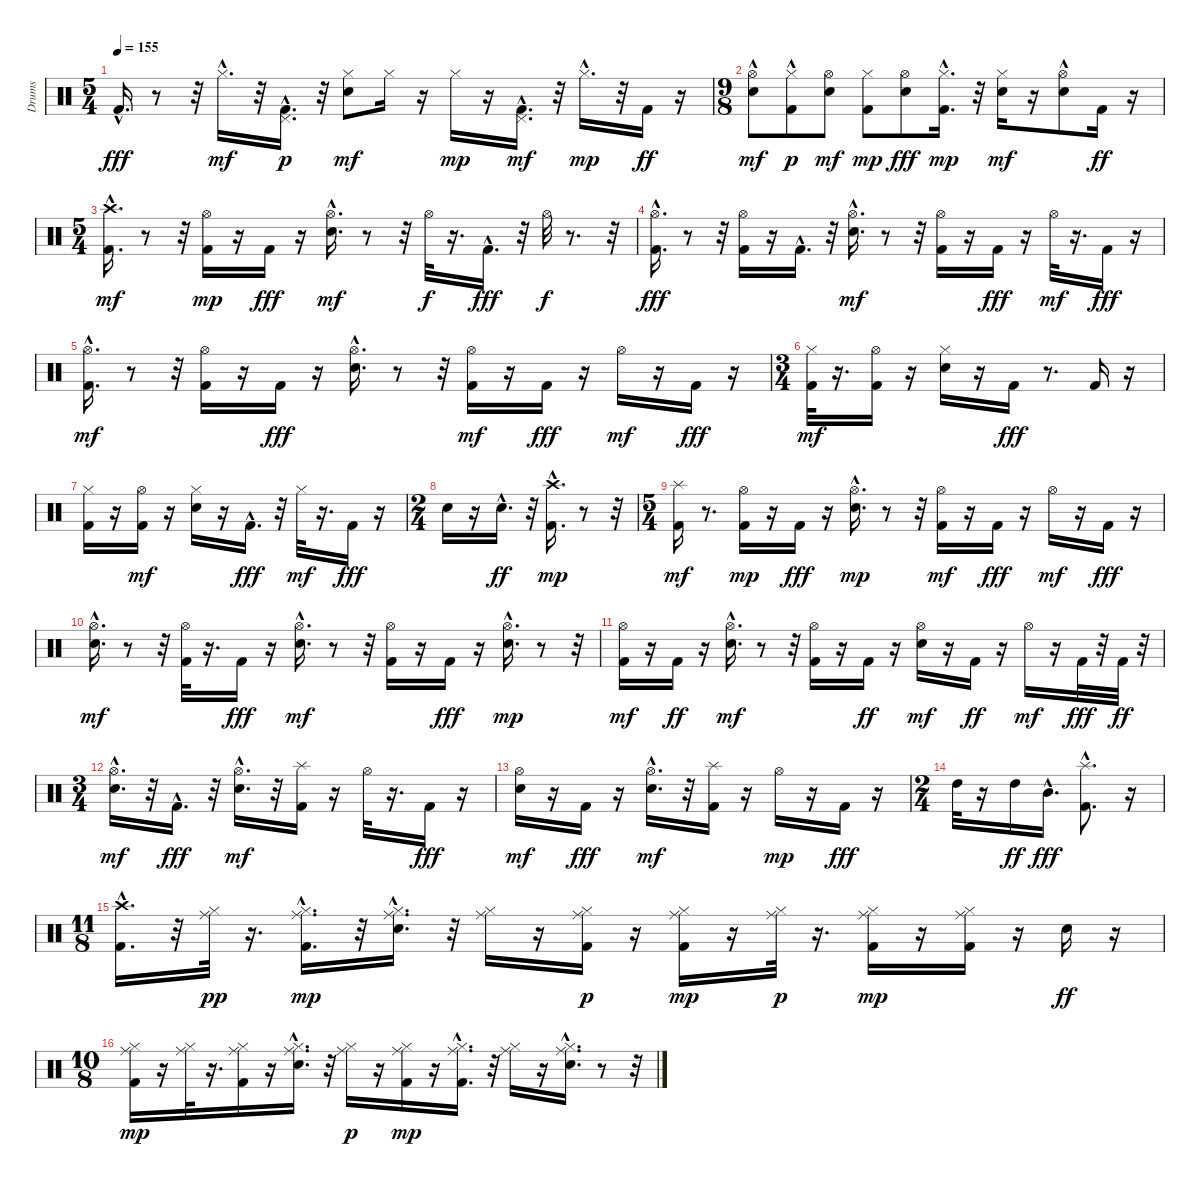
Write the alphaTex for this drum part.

\track ("Drums" "Drums") {instrument percussion}
\staff {score}
\articulation defaults
\ts (5 4)
\tempo 155
\clef neutral
\ks c "Kick (hit) 2"{hac}.16{d dy fff}
r.8 r.32 "Hi-Hat (closed)"{hac}.16{d dy mf} r.32 ("Kick (hit) 2"{hac} "Pedal Hi-Hat (hit)"{hac}).16{d dy p} r.32 ("Electric Snare (hit)" "Hi-Hat (closed)").8{dy mf} "Hi-Hat (closed)".16 r.16 "Hi-Hat (closed)".16{dy mp} r.16 ("Kick (hit) 2"{hac} "Pedal Hi-Hat (hit)"{hac}).16{d dy mf} r.32 "Hi-Hat (closed)"{hac}.16{d dy mp} r.32 "Kick (hit) 2".16{dy ff} r.16 |
\ts (9 8)
("Electric Snare (hit)" "Hi-Hat (open)"{hac}).8{dy mf} ("Kick (hit) 2" "Hi-Hat (closed)"{hac}).8{dy p} ("Electric Snare (hit)" "Hi-Hat (open)").8{dy mf} ("Kick (hit) 2" "Hi-Hat (closed)").8{dy mp} ("Electric Snare (hit)" "Hi-Hat (open)").8{dy fff} ("Kick (hit) 2"{hac} "Hi-Hat (closed)"{hac}).16{d dy mp} r.32 ("Electric Snare (hit)" "Hi-Hat (closed)").16{dy mf} r.16 ("Electric Snare (hit)"{hac} "Hi-Hat (open)").8 "Kick (hit) 2".16{dy ff} r.16 |
\ts (5 4)
("Kick (hit) 2"{hac} "Crash high (hit)").16{d dy mf} r.8 r.32 ("Kick (hit) 2" "Hi-Hat (open)").16{dy mp} r.16 "Kick (hit) 2".16{dy fff} r.16 ("Electric Snare (hit)"{hac} "Hi-Hat (open)").16{d dy mf} r.8 r.32 "Hi-Hat (open)".32{dy f} r.16{d} "Kick (hit) 2"{hac}.16{d dy fff} r.32 "Hi-Hat (open)".32{dy f} r.8{d} r.32 |
("Kick (hit) 2"{hac} "Hi-Hat (open)").16{d dy fff} r.8 r.32 ("Kick (hit) 2" "Hi-Hat (open)").16 r.16 "Kick (hit) 2"{hac}.16{d} r.32 ("Electric Snare (hit)"{hac} "Hi-Hat (open)").16{d dy mf} r.8 r.32 ("Kick (hit) 2" "Hi-Hat (open)").16 r.16 "Kick (hit) 2".16{dy fff} r.16 "Hi-Hat (open)".32{dy mf} r.16{d} "Kick (hit) 2".16{dy fff} r.16 |
("Kick (hit) 2"{hac} "Hi-Hat (open)").16{d dy mf} r.8 r.32 ("Kick (hit) 2" "Hi-Hat (open)").16 r.16 "Kick (hit) 2".16{dy fff} r.16 ("Electric Snare (hit)"{hac} "Hi-Hat (open)").16{d} r.8 r.32 ("Kick (hit) 2" "Hi-Hat (open)").16{dy mf} r.16 "Kick (hit) 2".16{dy fff} r.16 "Hi-Hat (open)".16{dy mf} r.16 "Kick (hit) 2".16{dy fff} r.16 |
\ts (3 4)
("Kick (hit) 2" "Hi-Hat (closed)").32{dy mf} r.16{d} ("Kick (hit) 2" "Hi-Hat (open)").16 r.16 ("Electric Snare (hit)" "Hi-Hat (closed)").16 r.16 "Kick (hit) 2".16{dy fff} r.8{d} "Kick (hit) 2".16 r.16 |
("Kick (hit) 2" "Hi-Hat (closed)").16 r.16 ("Kick (hit) 2" "Hi-Hat (open)").16{dy mf} r.16 ("Electric Snare (hit)" "Hi-Hat (closed)").16 r.16 "Kick (hit) 2"{hac}.16{d dy fff} r.32 "Hi-Hat (closed)".32{dy mf} r.16{d} "Kick (hit) 2".16{dy fff} r.16 |
\ts (2 4)
"Electric Snare (hit)".16 r.16 "Electric Snare (hit)"{hac}.16{d dy ff} r.32 ("Kick (hit) 2"{hac} "Crash high (hit)").16{d dy mp} r.8 r.32 |
\ts (5 4)
("Kick (hit) 2" "Splash (hit)").16{dy mf} r.8{d} ("Kick (hit) 2" "Hi-Hat (open)").16{dy mp} r.16 "Kick (hit) 2".16{dy fff} r.16 ("Electric Snare (hit)"{hac} "Hi-Hat (open)").16{d dy mp} r.8 r.32 ("Kick (hit) 2" "Hi-Hat (open)").16{dy mf} r.16 "Kick (hit) 2".16{dy fff} r.16 "Hi-Hat (open)".16{dy mf} r.16 "Kick (hit) 2".16{dy fff} r.16 |
("Electric Snare (hit)"{hac} "Hi-Hat (open)").16{d dy mf} r.8 r.32 ("Kick (hit) 2" "Hi-Hat (open)").32 r.16{d} "Kick (hit) 2".16{dy fff} r.16 ("Electric Snare (hit)"{hac} "Hi-Hat (open)").16{d dy mf} r.8 r.32 ("Kick (hit) 2" "Hi-Hat (open)").16 r.16 "Kick (hit) 2".16{dy fff} r.16 ("Electric Snare (hit)"{hac} "Hi-Hat (open)").16{d dy mp} r.8 r.32 |
("Kick (hit) 2" "Hi-Hat (open)").16{dy mf} r.16 "Kick (hit) 2".16{dy ff} r.16 ("Electric Snare (hit)"{hac} "Hi-Hat (open)").16{d dy mf} r.8 r.32 ("Kick (hit) 2" "Hi-Hat (open)").16 r.16 "Kick (hit) 2".16{dy ff} r.16 ("Electric Snare (hit)" "Hi-Hat (open)").16{dy mf} r.16 "Kick (hit) 2".16{dy ff} r.16 "Hi-Hat (open)".16{dy mf} r.16 "Kick (hit) 2".32{dy fff} r.32 "Kick (hit) 2".32{dy ff} r.32 |
\ts (3 4)
("Electric Snare (hit)"{hac} "Hi-Hat (open)").16{d dy mf} r.32 "Kick (hit) 2"{hac}.16{d dy fff} r.32 ("Electric Snare (hit)"{hac} "Hi-Hat (open)").16{d dy mf} r.32 ("Kick (hit) 2" "Splash (hit)").16 r.16 "Hi-Hat (open)".32 r.16{d} "Kick (hit) 2".16{dy fff} r.16 |
("Electric Snare (hit)" "Hi-Hat (open)").16{dy mf} r.16 "Kick (hit) 2".16{dy fff} r.16 ("Electric Snare (hit)"{hac} "Hi-Hat (open)"{hac}).16{d dy mf} r.32 ("Kick (hit) 2" "Splash (hit)").16 r.16 "Hi-Hat (open)".16{dy mp} r.16 "Kick (hit) 2".16{dy fff} r.16 |
\ts (2 4)
"High Tom (hit)".32 r.16 "High Tom (hit)".16{dy ff} "Mid Tom (hit)"{hac}.16{d dy fff} ("Splash (hit)" "Kick (hit) 2"{hac}).8{d} r.16 |
\ts (11 8)
("Kick (hit) 2"{hac} "Crash high (hit)").16{d} r.32 ("Hi-Hat (closed)" "Ride (middle)").32{dy pp} r.16{d} ("Kick (hit) 2"{hac} "Hi-Hat (closed)" "Ride (middle)").16{d dy mp} r.32 ("Electric Snare (hit)"{hac} "Ride (middle)" "Hi-Hat (closed)").16{d} r.32 ("Hi-Hat (closed)" "Ride (middle)").16 r.16 ("Kick (hit) 2" "Hi-Hat (closed)" "Ride (middle)").16{dy p} r.16 ("Kick (hit) 2" "Hi-Hat (closed)" "Ride (middle)").16{dy mp} r.16 ("Hi-Hat (closed)" "Ride (middle)").32{dy p} r.16{d} ("Kick (hit) 2" "Hi-Hat (closed)" "Ride (middle)").16{dy mp} r.16 ("Kick (hit) 2" "Hi-Hat (closed)" "Ride (middle)").16 r.16 "Electric Snare (hit)".16{dy ff} r.16 |
\ts (10 8)
("Kick (hit) 2" "Hi-Hat (closed)" "Ride (middle)").16{dy mp} r.16 ("Ride (middle)" "Hi-Hat (closed)").32 r.16{d} ("Kick (hit) 2" "Hi-Hat (closed)" "Ride (middle)").16 r.16 ("Electric Snare (hit)"{hac} "Hi-Hat (closed)" "Ride (middle)").16{d} r.32 ("Hi-Hat (closed)" "Ride (middle)").16{dy p} r.16 ("Kick (hit) 2" "Hi-Hat (closed)" "Ride (middle)").16{dy mp} r.16 ("Kick (hit) 2"{hac} "Hi-Hat (closed)" "Ride (middle)").16{d} r.32 ("Hi-Hat (closed)" "Ride (middle)").16 r.16 ("Electric Snare (hit)"{hac} "Hi-Hat (closed)" "Ride (middle)").16{d} r.8 r.32
